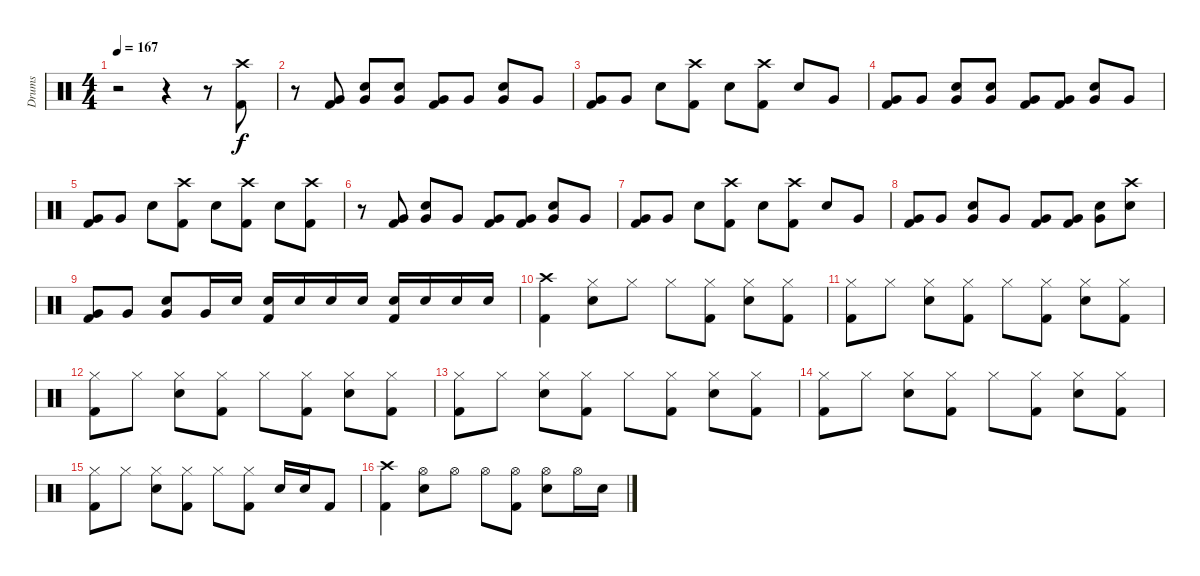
\track ("Drums" "Drums") {instrument percussion}
\staff {score}
\articulation defaults
\ts (4 4)
\tempo 167
\clef neutral
\ks c
r.2{dy f} r.4 r.8 ("Crash high (hit)" "Kick (hit) 2").8 |
r.8 ("Very Low Tom (hit)" "Kick (hit) 2").8 ("Snare (hit) 2" "Very Low Tom (hit)").8 ("Snare (hit) 2" "Very Low Tom (hit)").8 ("Very Low Tom (hit)" "Kick (hit) 2").8 "Very Low Tom (hit)".8 ("Snare (hit) 2" "Very Low Tom (hit)").8 "Very Low Tom (hit)".8 |
("Very Low Tom (hit)" "Kick (hit) 2").8 "Very Low Tom (hit)".8 "Snare (hit) 2".8 ("Crash high (hit)" "Kick (hit) 2").8 "Snare (hit) 2".8 ("Crash high (hit)" "Kick (hit) 2").8 "Snare (hit) 2".8 "Very Low Tom (hit)".8 |
("Kick (hit) 2" "Very Low Tom (hit)").8 "Very Low Tom (hit)".8 ("Snare (hit) 2" "Very Low Tom (hit)").8 ("Snare (hit) 2" "Very Low Tom (hit)").8 ("Kick (hit) 2" "Very Low Tom (hit)").8 ("Kick (hit) 2" "Very Low Tom (hit)").8 ("Snare (hit) 2" "Very Low Tom (hit)").8 "Very Low Tom (hit)".8 |
("Kick (hit) 2" "Very Low Tom (hit)").8 "Very Low Tom (hit)".8 "Snare (hit) 2".8 ("Kick (hit) 2" "Crash high (hit)").8 "Snare (hit) 2".8 ("Kick (hit) 2" "Crash high (hit)").8 "Snare (hit) 2".8 ("Kick (hit) 2" "Crash high (hit)").8 |
r.8 ("Very Low Tom (hit)" "Kick (hit) 2").8 ("Snare (hit) 2" "Very Low Tom (hit)").8 "Very Low Tom (hit)".8 ("Kick (hit) 2" "Very Low Tom (hit)").8 ("Kick (hit) 2" "Very Low Tom (hit)").8 ("Snare (hit) 2" "Very Low Tom (hit)").8 "Very Low Tom (hit)".8 |
("Very Low Tom (hit)" "Kick (hit) 2").8 "Very Low Tom (hit)".8 "Snare (hit) 2".8 ("Crash high (hit)" "Kick (hit) 2").8 "Snare (hit) 2".8 ("Crash high (hit)" "Kick (hit) 2").8 "Snare (hit) 2".8 "Very Low Tom (hit)".8 |
("Kick (hit) 2" "Very Low Tom (hit)").8 "Very Low Tom (hit)".8 ("Snare (hit) 2" "Very Low Tom (hit)").8 "Very Low Tom (hit)".8 ("Kick (hit) 2" "Very Low Tom (hit)").8 ("Kick (hit) 2" "Very Low Tom (hit)").8 ("Snare (hit) 2" "Very Low Tom (hit)").8 ("Crash high (hit)" "Snare (hit) 2").8 |
("Kick (hit) 2" "Very Low Tom (hit)").8 "Very Low Tom (hit)".8 ("Snare (hit) 2" "Very Low Tom (hit)").8 "Very Low Tom (hit)".16 "Snare (hit) 2".16 ("Snare (hit) 2" "Kick (hit) 2").16 "Snare (hit) 2".16 "Snare (hit) 2".16 "Snare (hit) 2".16 ("Snare (hit) 2" "Kick (hit) 2").16 "Snare (hit) 2".16 "Snare (hit) 2".16 "Snare (hit) 2".16 |
("Kick (hit) 2" "Crash high (hit)").4 ("Hi-Hat (closed)" "Snare (hit) 2").8 "Hi-Hat (closed)".8 "Hi-Hat (closed)".8 ("Hi-Hat (closed)" "Kick (hit) 2").8 ("Hi-Hat (closed)" "Snare (hit) 2").8 ("Hi-Hat (closed)" "Kick (hit) 2").8 |
("Kick (hit) 2" "Hi-Hat (closed)").8 "Hi-Hat (closed)".8 ("Snare (hit) 2" "Hi-Hat (closed)").8 ("Kick (hit) 2" "Hi-Hat (closed)").8 "Hi-Hat (closed)".8 ("Kick (hit) 2" "Hi-Hat (closed)").8 ("Snare (hit) 2" "Hi-Hat (closed)").8 ("Kick (hit) 2" "Hi-Hat (closed)").8 |
("Kick (hit) 2" "Hi-Hat (closed)").8 "Hi-Hat (closed)".8 ("Snare (hit) 2" "Hi-Hat (closed)").8 ("Kick (hit) 2" "Hi-Hat (closed)").8 "Hi-Hat (closed)".8 ("Kick (hit) 2" "Hi-Hat (closed)").8 ("Snare (hit) 2" "Hi-Hat (closed)").8 ("Kick (hit) 2" "Hi-Hat (closed)").8 |
("Kick (hit) 2" "Hi-Hat (closed)").8 "Hi-Hat (closed)".8 ("Snare (hit) 2" "Hi-Hat (closed)").8 ("Kick (hit) 2" "Hi-Hat (closed)").8 "Hi-Hat (closed)".8 ("Kick (hit) 2" "Hi-Hat (closed)").8 ("Snare (hit) 2" "Hi-Hat (closed)").8 ("Kick (hit) 2" "Hi-Hat (closed)").8 |
("Kick (hit) 2" "Hi-Hat (closed)").8 "Hi-Hat (closed)".8 ("Snare (hit) 2" "Hi-Hat (closed)").8 ("Kick (hit) 2" "Hi-Hat (closed)").8 "Hi-Hat (closed)".8 ("Kick (hit) 2" "Hi-Hat (closed)").8 ("Snare (hit) 2" "Hi-Hat (closed)").8 ("Kick (hit) 2" "Hi-Hat (closed)").8 |
("Kick (hit) 2" "Hi-Hat (closed)").8 "Hi-Hat (closed)".8 ("Snare (hit) 2" "Hi-Hat (closed)").8 ("Kick (hit) 2" "Hi-Hat (closed)").8 "Hi-Hat (closed)".8 ("Kick (hit) 2" "Hi-Hat (closed)").8 "Snare (hit) 2".16 "Snare (hit) 2".16 "Kick (hit) 2".8 |
("Kick (hit) 2" "Crash high (hit)").4 ("Hi-Hat (open)" "Snare (hit) 2").8 "Hi-Hat (open)".8 "Hi-Hat (open)".8 ("Kick (hit) 2" "Hi-Hat (open)").8 ("Snare (hit) 2" "Hi-Hat (open)").8 "Hi-Hat (open)".16 "Snare (hit) 2".16
